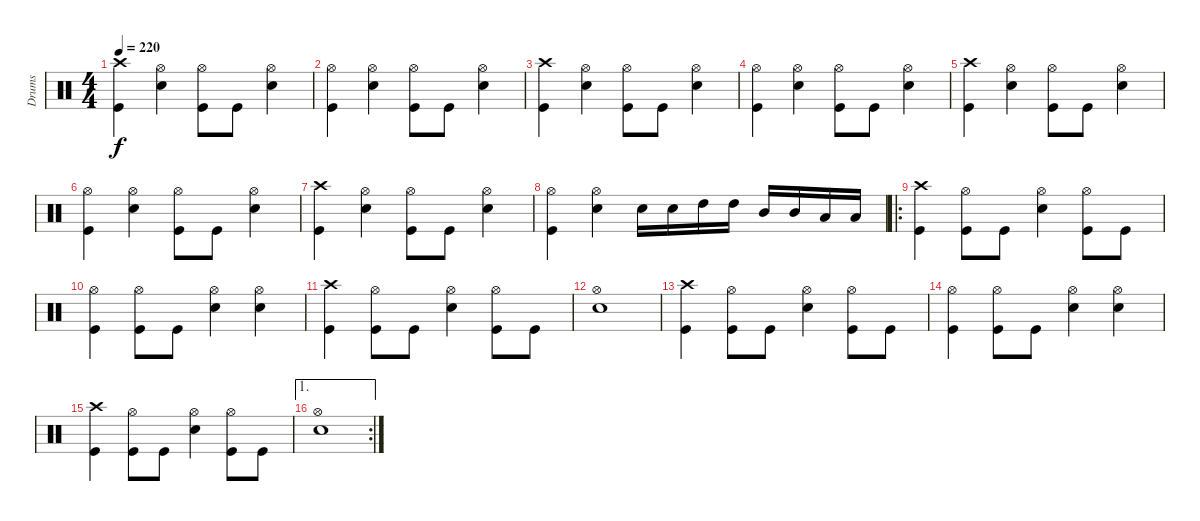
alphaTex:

\track ("Drums" "Drums") {instrument percussion}
\staff {score}
\articulation defaults
\ts (4 4)
\tempo 220
\clef neutral
\ks c
("Crash high (hit)" "Kick (hit)").4{dy f} ("Hi-Hat (open)" "Snare (hit) 2").4 ("Hi-Hat (open)" "Kick (hit)").8 "Kick (hit)".8 ("Hi-Hat (open)" "Snare (hit) 2").4 |
("Hi-Hat (open)" "Kick (hit)").4 ("Hi-Hat (open)" "Snare (hit) 2").4 ("Hi-Hat (open)" "Kick (hit)").8 "Kick (hit)".8 ("Hi-Hat (open)" "Snare (hit) 2").4 |
("Crash high (hit)" "Kick (hit)").4 ("Hi-Hat (open)" "Snare (hit) 2").4 ("Hi-Hat (open)" "Kick (hit)").8 "Kick (hit)".8 ("Hi-Hat (open)" "Snare (hit) 2").4 |
("Hi-Hat (open)" "Kick (hit)").4 ("Hi-Hat (open)" "Snare (hit) 2").4 ("Hi-Hat (open)" "Kick (hit)").8 "Kick (hit)".8 ("Hi-Hat (open)" "Snare (hit) 2").4 |
("Crash high (hit)" "Kick (hit)").4 ("Hi-Hat (open)" "Snare (hit) 2").4 ("Hi-Hat (open)" "Kick (hit)").8 "Kick (hit)".8 ("Hi-Hat (open)" "Snare (hit) 2").4 |
("Hi-Hat (open)" "Kick (hit)").4 ("Hi-Hat (open)" "Snare (hit) 2").4 ("Hi-Hat (open)" "Kick (hit)").8 "Kick (hit)".8 ("Hi-Hat (open)" "Snare (hit) 2").4 |
("Crash high (hit)" "Kick (hit)").4 ("Hi-Hat (open)" "Snare (hit) 2").4 ("Hi-Hat (open)" "Kick (hit)").8 "Kick (hit)".8 ("Hi-Hat (open)" "Snare (hit) 2").4 |
("Hi-Hat (open)" "Kick (hit)").4 ("Hi-Hat (open)" "Snare (hit) 2").4 "Snare (hit) 2".16 "Snare (hit) 2".16 "High Tom (hit)".16 "High Tom (hit)".16 "Mid Tom (hit)".16 "Mid Tom (hit)".16 "Low Tom (hit)".16 "Low Tom (hit)".16 |
\ro
("Crash high (hit)" "Kick (hit)").4 ("Hi-Hat (open)" "Kick (hit)").8 "Kick (hit)".8 ("Hi-Hat (open)" "Snare (hit) 2").4 ("Hi-Hat (open)" "Kick (hit)").8 "Kick (hit)".8 |
("Hi-Hat (open)" "Kick (hit)").4 ("Hi-Hat (open)" "Kick (hit)").8 "Kick (hit)".8 ("Hi-Hat (open)" "Snare (hit) 2").4 ("Hi-Hat (open)" "Snare (hit) 2").4 |
("Crash high (hit)" "Kick (hit)").4 ("Hi-Hat (open)" "Kick (hit)").8 "Kick (hit)".8 ("Hi-Hat (open)" "Snare (hit) 2").4 ("Hi-Hat (open)" "Kick (hit)").8 "Kick (hit)".8 |
("Hi-Hat (open)" "Snare (hit) 2").1 |
("Crash high (hit)" "Kick (hit)").4 ("Hi-Hat (open)" "Kick (hit)").8 "Kick (hit)".8 ("Hi-Hat (open)" "Snare (hit) 2").4 ("Hi-Hat (open)" "Kick (hit)").8 "Kick (hit)".8 |
("Hi-Hat (open)" "Kick (hit)").4 ("Hi-Hat (open)" "Kick (hit)").8 "Kick (hit)".8 ("Hi-Hat (open)" "Snare (hit) 2").4 ("Hi-Hat (open)" "Snare (hit) 2").4 |
("Crash high (hit)" "Kick (hit)").4 ("Hi-Hat (open)" "Kick (hit)").8 "Kick (hit)".8 ("Hi-Hat (open)" "Snare (hit) 2").4 ("Hi-Hat (open)" "Kick (hit)").8 "Kick (hit)".8 |
\ae 1
\rc 2
("Hi-Hat (open)" "Snare (hit) 2").1
